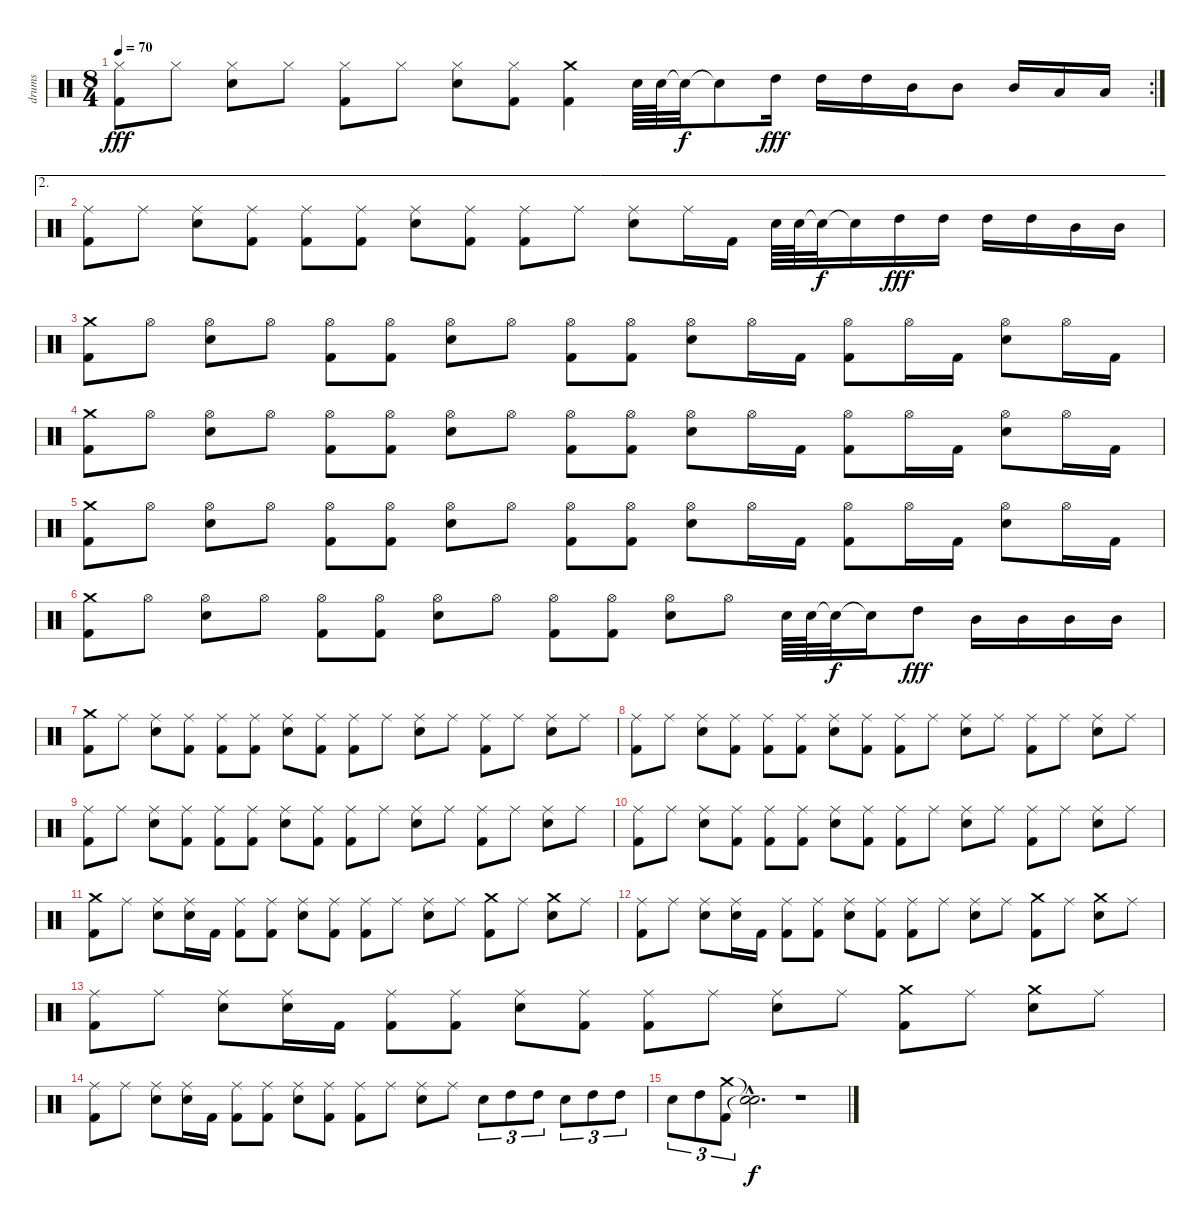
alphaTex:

\track ("drums" "drums") {instrument percussion}
\staff {score}
\articulation defaults
\rc 2
\ts (8 4)
\tempo 70
\clef neutral
\ks c
("Hi-Hat (closed)" "Kick (hit) 2").8{dy fff} "Hi-Hat (closed)".8 ("Hi-Hat (closed)" "Snare (hit) 2").8 "Hi-Hat (closed)".8 ("Hi-Hat (closed)" "Kick (hit) 2").8 "Hi-Hat (closed)".8 ("Hi-Hat (closed)" "Snare (hit) 2").8 ("Hi-Hat (closed)" "Kick (hit) 2").8 ("Crash medium (hit)" "Kick (hit) 2").4 "Snare (hit) 2".64 "Snare (hit) 2".64 "Snare (hit)"{t}.32{dy f} "Snare (hit)"{t}.8 "High Tom (hit)".16{dy fff} "High Tom (hit)".16 "High Tom (hit)".16 "Mid Tom (hit)".16 "Mid Tom (hit)".8 "Mid Tom (hit)".16 "Low Tom (hit)".16 "Low Tom (hit)".16 |
\ae 2
("Ride (middle)" "Kick (hit) 2").8 "Ride (middle)".8 ("Ride (middle)" "Snare (hit) 2").8 ("Ride (middle)" "Kick (hit) 2").8 ("Ride (middle)" "Kick (hit) 2").8 ("Ride (middle)" "Kick (hit) 2").8 ("Ride (middle)" "Snare (hit) 2").8 ("Ride (middle)" "Kick (hit) 2").8 ("Ride (middle)" "Kick (hit) 2").8 "Ride (middle)".8 ("Ride (middle)" "Snare (hit) 2").8 "Ride (middle)".16 "Kick (hit) 2".16 "Snare (hit) 2".64 "Snare (hit) 2".64 "Snare (hit)"{t}.32{dy f} "Snare (hit)"{t}.16 "High Tom (hit)".16{dy fff} "High Tom (hit)".16 "High Tom (hit)".16 "High Tom (hit)".16 "Mid Tom (hit)".16 "Mid Tom (hit)".16 |
("Crash medium (hit)" "Kick (hit) 2").8 "Hi-Hat (open)".8 ("Hi-Hat (open)" "Snare (hit) 2").8 "Hi-Hat (open)".8 ("Hi-Hat (open)" "Kick (hit) 2").8 ("Hi-Hat (open)" "Kick (hit) 2").8 ("Hi-Hat (open)" "Snare (hit) 2").8 "Hi-Hat (open)".8 ("Hi-Hat (open)" "Kick (hit) 2").8 ("Hi-Hat (open)" "Kick (hit) 2").8 ("Hi-Hat (open)" "Snare (hit) 2").8 "Hi-Hat (open)".16 "Kick (hit) 2".16 ("Hi-Hat (open)" "Kick (hit) 2").8 "Hi-Hat (open)".16 "Kick (hit) 2".16 ("Hi-Hat (open)" "Snare (hit) 2").8 "Hi-Hat (open)".16 "Kick (hit) 2".16 |
("Crash medium (hit)" "Kick (hit) 2").8 "Hi-Hat (open)".8 ("Hi-Hat (open)" "Snare (hit) 2").8 "Hi-Hat (open)".8 ("Hi-Hat (open)" "Kick (hit) 2").8 ("Hi-Hat (open)" "Kick (hit) 2").8 ("Hi-Hat (open)" "Snare (hit) 2").8 "Hi-Hat (open)".8 ("Hi-Hat (open)" "Kick (hit) 2").8 ("Hi-Hat (open)" "Kick (hit) 2").8 ("Hi-Hat (open)" "Snare (hit) 2").8 "Hi-Hat (open)".16 "Kick (hit) 2".16 ("Hi-Hat (open)" "Kick (hit) 2").8 "Hi-Hat (open)".16 "Kick (hit) 2".16 ("Hi-Hat (open)" "Snare (hit) 2").8 "Hi-Hat (open)".16 "Kick (hit) 2".16 |
("Crash medium (hit)" "Kick (hit) 2").8 "Hi-Hat (open)".8 ("Hi-Hat (open)" "Snare (hit) 2").8 "Hi-Hat (open)".8 ("Hi-Hat (open)" "Kick (hit) 2").8 ("Hi-Hat (open)" "Kick (hit) 2").8 ("Hi-Hat (open)" "Snare (hit) 2").8 "Hi-Hat (open)".8 ("Hi-Hat (open)" "Kick (hit) 2").8 ("Hi-Hat (open)" "Kick (hit) 2").8 ("Hi-Hat (open)" "Snare (hit) 2").8 "Hi-Hat (open)".16 "Kick (hit) 2".16 ("Hi-Hat (open)" "Kick (hit) 2").8 "Hi-Hat (open)".16 "Kick (hit) 2".16 ("Hi-Hat (open)" "Snare (hit) 2").8 "Hi-Hat (open)".16 "Kick (hit) 2".16 |
("Crash medium (hit)" "Kick (hit) 2").8 "Hi-Hat (open)".8 ("Hi-Hat (open)" "Snare (hit) 2").8 "Hi-Hat (open)".8 ("Hi-Hat (open)" "Kick (hit) 2").8 ("Hi-Hat (open)" "Kick (hit) 2").8 ("Hi-Hat (open)" "Snare (hit) 2").8 "Hi-Hat (open)".8 ("Hi-Hat (open)" "Kick (hit) 2").8 ("Hi-Hat (open)" "Kick (hit) 2").8 ("Hi-Hat (open)" "Snare (hit) 2").8 "Hi-Hat (open)".8 "Snare (hit) 2".64 "Snare (hit) 2".64 "Snare (hit)"{t}.32{dy f} "Snare (hit)"{t}.16 "High Tom (hit)".8{dy fff} "Mid Tom (hit)".16 "Mid Tom (hit)".16 "Mid Tom (hit)".16 "Mid Tom (hit)".16 |
("Crash medium (hit)" "Kick (hit) 2").8 "Ride (middle)".8 ("Ride (middle)" "Snare (hit) 2").8 ("Ride (middle)" "Kick (hit) 2").8 ("Ride (middle)" "Kick (hit) 2").8 ("Ride (middle)" "Kick (hit) 2").8 ("Ride (middle)" "Snare (hit) 2").8 ("Ride (middle)" "Kick (hit) 2").8 ("Ride (middle)" "Kick (hit) 2").8 "Ride (middle)".8 ("Ride (middle)" "Snare (hit) 2").8 "Ride (middle)".8 ("Ride (middle)" "Kick (hit) 2").8 "Ride (middle)".8 ("Ride (middle)" "Snare (hit) 2").8 "Ride (middle)".8 |
("Ride (middle)" "Kick (hit) 2").8 "Ride (middle)".8 ("Ride (middle)" "Snare (hit) 2").8 ("Ride (middle)" "Kick (hit) 2").8 ("Ride (middle)" "Kick (hit) 2").8 ("Ride (middle)" "Kick (hit) 2").8 ("Ride (middle)" "Snare (hit) 2").8 ("Ride (middle)" "Kick (hit) 2").8 ("Ride (middle)" "Kick (hit) 2").8 "Ride (middle)".8 ("Ride (middle)" "Snare (hit) 2").8 "Ride (middle)".8 ("Ride (middle)" "Kick (hit) 2").8 "Ride (middle)".8 ("Ride (middle)" "Snare (hit) 2").8 "Ride (middle)".8 |
("Ride (middle)" "Kick (hit) 2").8 "Ride (middle)".8 ("Ride (middle)" "Snare (hit) 2").8 ("Ride (middle)" "Kick (hit) 2").8 ("Ride (middle)" "Kick (hit) 2").8 ("Ride (middle)" "Kick (hit) 2").8 ("Ride (middle)" "Snare (hit) 2").8 ("Ride (middle)" "Kick (hit) 2").8 ("Ride (middle)" "Kick (hit) 2").8 "Ride (middle)".8 ("Ride (middle)" "Snare (hit) 2").8 "Ride (middle)".8 ("Ride (middle)" "Kick (hit) 2").8 "Ride (middle)".8 ("Ride (middle)" "Snare (hit) 2").8 "Ride (middle)".8 |
("Ride (middle)" "Kick (hit) 2").8 "Ride (middle)".8 ("Ride (middle)" "Snare (hit) 2").8 ("Ride (middle)" "Kick (hit) 2").8 ("Ride (middle)" "Kick (hit) 2").8 ("Ride (middle)" "Kick (hit) 2").8 ("Ride (middle)" "Snare (hit) 2").8 ("Ride (middle)" "Kick (hit) 2").8 ("Ride (middle)" "Kick (hit) 2").8 "Ride (middle)".8 ("Ride (middle)" "Snare (hit) 2").8 "Ride (middle)".8 ("Ride (middle)" "Kick (hit) 2").8 "Ride (middle)".8 ("Ride (middle)" "Snare (hit) 2").8 "Ride (middle)".8 |
("Crash medium (hit)" "Kick (hit) 2").8 "Ride (middle)".8 ("Ride (middle)" "Snare (hit) 2").8 ("Ride (middle)" "Snare (hit) 2").16 "Kick (hit) 2".16 ("Ride (middle)" "Kick (hit) 2").8 ("Ride (middle)" "Kick (hit) 2").8 ("Ride (middle)" "Snare (hit) 2").8 ("Ride (middle)" "Kick (hit) 2").8 ("Ride (middle)" "Kick (hit) 2").8 "Ride (middle)".8 ("Ride (middle)" "Snare (hit) 2").8 "Ride (middle)".8 ("Crash medium (hit)" "Kick (hit) 2").8 "Ride (middle)".8 ("Crash medium (hit)" "Snare (hit) 2").8 "Ride (middle)".8 |
("Ride (middle)" "Kick (hit) 2").8 "Ride (middle)".8 ("Ride (middle)" "Snare (hit) 2").8 ("Ride (middle)" "Snare (hit) 2").16 "Kick (hit) 2".16 ("Ride (middle)" "Kick (hit) 2").8 ("Ride (middle)" "Kick (hit) 2").8 ("Ride (middle)" "Snare (hit) 2").8 ("Ride (middle)" "Kick (hit) 2").8 ("Ride (middle)" "Kick (hit) 2").8 "Ride (middle)".8 ("Ride (middle)" "Snare (hit) 2").8 "Ride (middle)".8 ("Crash medium (hit)" "Kick (hit) 2").8 "Ride (middle)".8 ("Crash medium (hit)" "Snare (hit) 2").8 "Ride (middle)".8 |
("Ride (middle)" "Kick (hit) 2").8 "Ride (middle)".8 ("Ride (middle)" "Snare (hit) 2").8 ("Ride (middle)" "Snare (hit) 2").16 "Kick (hit) 2".16 ("Ride (middle)" "Kick (hit) 2").8 ("Ride (middle)" "Kick (hit) 2").8 ("Ride (middle)" "Snare (hit) 2").8 ("Ride (middle)" "Kick (hit) 2").8 ("Ride (middle)" "Kick (hit) 2").8 "Ride (middle)".8 ("Ride (middle)" "Snare (hit) 2").8 "Ride (middle)".8 ("Crash medium (hit)" "Kick (hit) 2").8 "Ride (middle)".8 ("Crash medium (hit)" "Snare (hit) 2").8 "Ride (middle)".8 |
("Ride (middle)" "Kick (hit) 2").8 "Ride (middle)".8 ("Ride (middle)" "Snare (hit) 2").8 ("Ride (middle)" "Snare (hit) 2").16 "Kick (hit) 2".16 ("Ride (middle)" "Kick (hit) 2").8 ("Ride (middle)" "Kick (hit) 2").8 ("Ride (middle)" "Snare (hit) 2").8 ("Ride (middle)" "Kick (hit) 2").8 ("Ride (middle)" "Kick (hit) 2").8 "Ride (middle)".8 ("Ride (middle)" "Snare (hit) 2").8 "Ride (middle)".8 "Snare (hit) 2".8{tu (3 2)} "High Tom (hit)".8{tu (3 2)} "High Tom (hit)".8{tu (3 2)} "Snare (hit) 2".8{tu (3 2)} "High Tom (hit)".8{tu (3 2)} "High Tom (hit)".8{tu (3 2)} |
"Snare (hit) 2".8{tu (3 2)} "High Tom (hit)".8{tu (3 2)} ("Crash medium (hit)" "Kick (hit) 2").8{tu (3 2)} ("Snare (hit)"{hac t} "Snare (hit)"{hac t}).2{d dy f} r.1
